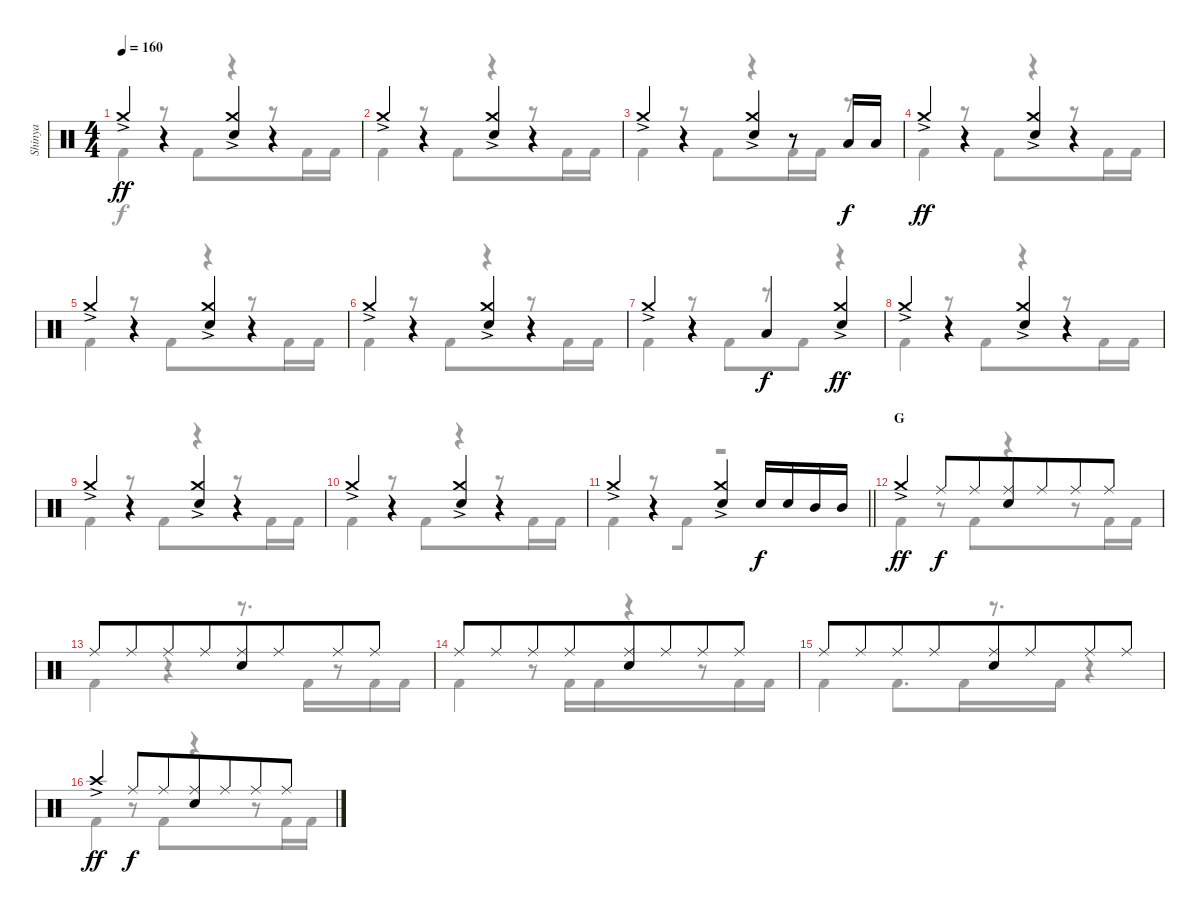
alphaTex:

\track ("Shinya" "Shinya") {instrument percussion}
\staff {score}
\articulation defaults
\voice
\ts (4 4)
\tempo 160
\clef neutral
\ks c "Crash medium (hit)"{ac}.4{dy ff beam merge}
r.4{beam merge} ("Crash medium (hit)"{ac} "Electric Snare (hit)").4{beam merge} r.4 |
"Crash medium (hit)"{ac}.4{beam merge} r.4{beam merge} ("Crash medium (hit)"{ac} "Electric Snare (hit)").4{beam merge} r.4 |
"Crash medium (hit)"{ac}.4{beam merge} r.4{beam merge} ("Crash medium (hit)"{ac} "Electric Snare (hit)").4{beam merge} r.8 "Low Tom (hit)".16{dy f beam merge} "Low Tom (hit)".16 |
"Crash medium (hit)"{ac}.4{dy ff beam merge} r.4{beam merge} ("Crash medium (hit)"{ac} "Electric Snare (hit)").4{beam merge} r.4 |
"Crash medium (hit)"{ac}.4{beam merge} r.4{beam merge} ("Crash medium (hit)"{ac} "Electric Snare (hit)").4{beam merge} r.4 |
"Crash medium (hit)"{ac}.4{beam merge} r.4{beam merge} ("Crash medium (hit)"{ac} "Electric Snare (hit)").4{beam merge} r.4 |
"Crash medium (hit)"{ac}.4{beam merge} r.4{beam merge} "Low Tom (hit)".4{dy f beam merge} ("Crash medium (hit)"{ac} "Electric Snare (hit)").4{dy ff} |
"Crash medium (hit)"{ac}.4{beam merge} r.4{beam merge} ("Crash medium (hit)"{ac} "Electric Snare (hit)").4{beam merge} r.4 |
"Crash medium (hit)"{ac}.4{beam merge} r.4{beam merge} ("Crash medium (hit)"{ac} "Electric Snare (hit)").4{beam merge} r.4 |
"Crash medium (hit)"{ac}.4{beam merge} r.4{beam merge} ("Crash medium (hit)"{ac} "Electric Snare (hit)").4{beam merge} r.4 |
\barLineRight lightlight "Crash medium (hit)"{ac}.4{beam merge}
r.4{beam merge} ("Crash medium (hit)"{ac} "Electric Snare (hit)").4{beam merge} "Electric Snare (hit)".16{dy f} "Electric Snare (hit)".16{beam merge} "Mid Tom (hit)".16 "Mid Tom (hit)".16 |
\section ("" "G")
"Crash medium (hit)"{ac}.4{dy ff beam merge} "Ride (middle)".8{dy f beam merge} "Ride (middle)".8{beam merge} ("Ride (middle)" "Electric Snare (hit)").8{beam merge} "Ride (middle)".8{beam merge} "Ride (middle)".8{beam merge} "Ride (middle)".8 |
"Ride (middle)".8{beam merge} "Ride (middle)".8{beam merge} "Ride (middle)".8{beam merge} "Ride (middle)".8{beam merge} ("Ride (middle)" "Electric Snare (hit)").8{beam merge} "Ride (middle)".8{beam merge} "Ride (middle)".8{beam merge} "Ride (middle)".8 |
"Ride (middle)".8{beam merge} "Ride (middle)".8{beam merge} "Ride (middle)".8{beam merge} "Ride (middle)".8{beam merge} ("Ride (middle)" "Electric Snare (hit)").8{beam merge} "Ride (middle)".8{beam merge} "Ride (middle)".8{beam merge} "Ride (middle)".8 |
"Ride (middle)".8{beam merge} "Ride (middle)".8{beam merge} "Ride (middle)".8{beam merge} "Ride (middle)".8{beam merge} ("Ride (middle)" "Electric Snare (hit)").8{beam merge} "Ride (middle)".8{beam merge} "Ride (middle)".8{beam merge} "Ride (middle)".8 |
"Crash high (hit)"{ac}.4{dy ff beam merge} "Ride (middle)".8{dy f beam merge} "Ride (middle)".8{beam merge} ("Ride (middle)" "Electric Snare (hit)").8{beam merge} "Ride (middle)".8{beam merge} "Ride (middle)".8{beam merge} "Ride (middle)".8
\voice
\clef neutral
\ottava regular
\simile none
\ks c "Kick (hit) 2".4{dy f beam merge}
r.8{beam merge} "Kick (hit) 2".8{beam merge} r.4{beam merge} r.8 "Kick (hit) 2".16{beam merge} "Kick (hit) 2".16 |
"Kick (hit) 2".4{beam merge} r.8{beam merge} "Kick (hit) 2".8{beam merge} r.4{beam merge} r.8 "Kick (hit) 2".16{beam merge} "Kick (hit) 2".16 |
"Kick (hit) 2".4{beam merge} r.8{beam merge} "Kick (hit) 2".8{beam merge} r.4 "Kick (hit) 2".16{beam merge} "Kick (hit) 2".16{beam merge} r.8 |
"Kick (hit) 2".4{beam merge} r.8{beam merge} "Kick (hit) 2".8{beam merge} r.4{beam merge} r.8 "Kick (hit) 2".16{beam merge} "Kick (hit) 2".16 |
"Kick (hit) 2".4{beam merge} r.8{beam merge} "Kick (hit) 2".8{beam merge} r.4{beam merge} r.8 "Kick (hit) 2".16{beam merge} "Kick (hit) 2".16 |
"Kick (hit) 2".4{beam merge} r.8{beam merge} "Kick (hit) 2".8{beam merge} r.4{beam merge} r.8 "Kick (hit) 2".16{beam merge} "Kick (hit) 2".16 |
"Kick (hit) 2".4{beam merge} r.8{beam merge} "Kick (hit) 2".8{beam merge} r.8{beam merge} "Kick (hit) 2".8 r.4 |
"Kick (hit) 2".4{beam merge} r.8{beam merge} "Kick (hit) 2".8{beam merge} r.4{beam merge} r.8 "Kick (hit) 2".16{beam merge} "Kick (hit) 2".16 |
"Kick (hit) 2".4{beam merge} r.8{beam merge} "Kick (hit) 2".8{beam merge} r.4{beam merge} r.8 "Kick (hit) 2".16{beam merge} "Kick (hit) 2".16 |
"Kick (hit) 2".4{beam merge} r.8{beam merge} "Kick (hit) 2".8{beam merge} r.4{beam merge} r.8 "Kick (hit) 2".16{beam merge} "Kick (hit) 2".16 |
\barLineRight lightlight "Kick (hit) 2".4{beam merge}
r.8{beam merge} "Kick (hit) 2".8{beam merge} r.2 |
"Kick (hit) 2".4{beam merge} r.8{beam merge} "Kick (hit) 2".8{beam merge} r.4{beam merge} r.8 "Kick (hit) 2".16{beam merge} "Kick (hit) 2".16 |
"Kick (hit) 2".4{beam merge} r.4{beam merge} r.8{d beam merge} "Kick (hit) 2".16{beam merge} r.8 "Kick (hit) 2".16{beam merge} "Kick (hit) 2".16 |
"Kick (hit) 2".4{beam merge} r.8 "Kick (hit) 2".16{beam merge} "Kick (hit) 2".16{beam merge} r.4{beam merge} r.8 "Kick (hit) 2".16{beam merge} "Kick (hit) 2".16 |
"Kick (hit) 2".4{beam merge} "Kick (hit) 2".8{d beam merge} "Kick (hit) 2".16{beam merge} r.8{d beam merge} "Kick (hit) 2".16 r.4 |
"Kick (hit) 2".4{beam merge} r.8{beam merge} "Kick (hit) 2".8{beam merge} r.4{beam merge} r.8 "Kick (hit) 2".16{beam merge} "Kick (hit) 2".16
